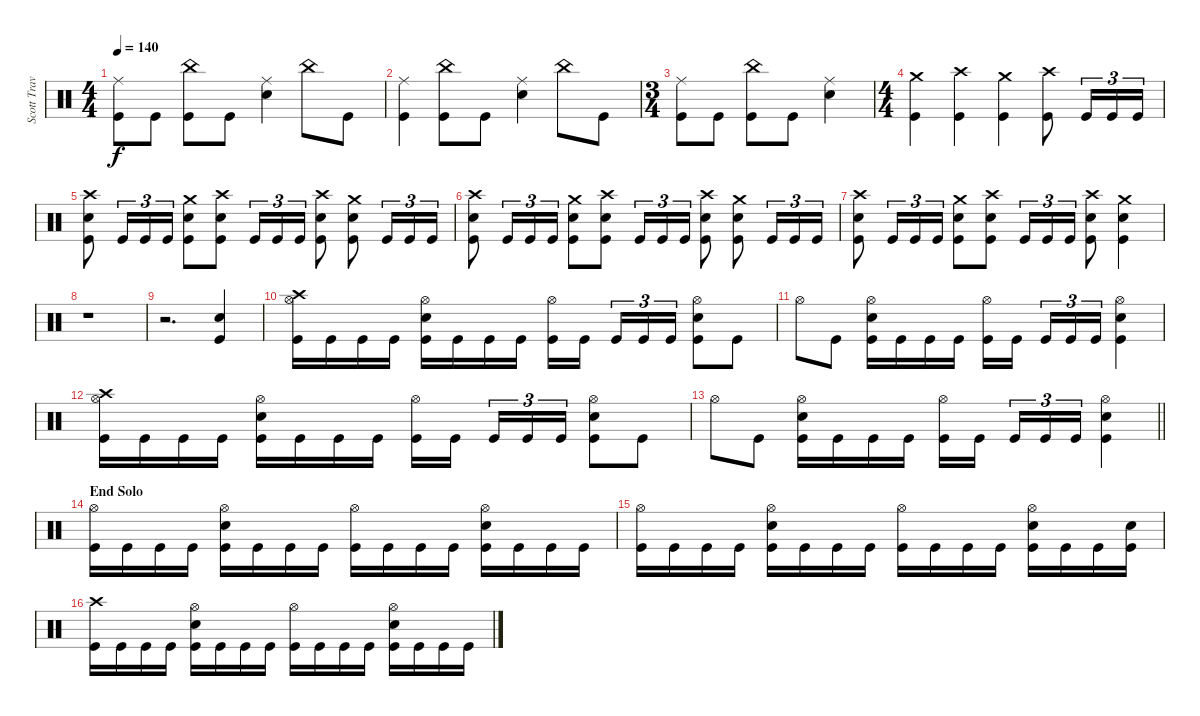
\track ("Scott Travis" "Scott Trav") {instrument percussion}
\staff {score}
\articulation defaults
\ts (4 4)
\tempo 140
\clef neutral
\ks c
("Ride (middle)" "Kick (hit)").8{dy f} "Kick (hit)".8 ("China (hit)" "Kick (hit)").8 "Kick (hit)".8 ("Ride (middle)" "Snare (hit) 2").4 "China (hit)".8 "Kick (hit)".8 |
("Ride (middle)" "Kick (hit)").4 ("China (hit)" "Kick (hit)").8 "Kick (hit)".8 ("Ride (middle)" "Snare (hit) 2").4 "China (hit)".8 "Kick (hit)".8 |
\ts (3 4)
("Ride (middle)" "Kick (hit)").8 "Kick (hit)".8 ("China (hit)" "Kick (hit)").8 "Kick (hit)".8 ("Ride (middle)" "Snare (hit) 2").4 |
\ts (4 4)
("Crash medium (hit)" "Kick (hit)").4 ("Crash high (hit)" "Kick (hit)").4 ("Crash medium (hit)" "Kick (hit)").4 ("Crash high (hit)" "Kick (hit)").8 "Kick (hit)".16{tu (3 2)} "Kick (hit)".16{tu (3 2)} "Kick (hit)".16{tu (3 2)} |
("Crash high (hit)" "Snare (hit) 2" "Kick (hit)").8 "Kick (hit)".16{tu (3 2)} "Kick (hit)".16{tu (3 2)} "Kick (hit)".16{tu (3 2)} ("Crash medium (hit)" "Snare (hit) 2" "Kick (hit)").8 ("Crash high (hit)" "Snare (hit) 2" "Kick (hit)").8 "Kick (hit)".16{tu (3 2)} "Kick (hit)".16{tu (3 2)} "Kick (hit)".16{tu (3 2)} ("Crash high (hit)" "Snare (hit) 2" "Kick (hit)").8 ("Crash medium (hit)" "Snare (hit) 2" "Kick (hit)").8 "Kick (hit)".16{tu (3 2)} "Kick (hit)".16{tu (3 2)} "Kick (hit)".16{tu (3 2)} |
("Crash high (hit)" "Snare (hit) 2" "Kick (hit)").8 "Kick (hit)".16{tu (3 2)} "Kick (hit)".16{tu (3 2)} "Kick (hit)".16{tu (3 2)} ("Crash medium (hit)" "Snare (hit) 2" "Kick (hit)").8 ("Crash high (hit)" "Snare (hit) 2" "Kick (hit)").8 "Kick (hit)".16{tu (3 2)} "Kick (hit)".16{tu (3 2)} "Kick (hit)".16{tu (3 2)} ("Crash high (hit)" "Snare (hit) 2" "Kick (hit)").8 ("Crash medium (hit)" "Snare (hit) 2" "Kick (hit)").8 "Kick (hit)".16{tu (3 2)} "Kick (hit)".16{tu (3 2)} "Kick (hit)".16{tu (3 2)} |
("Crash high (hit)" "Snare (hit) 2" "Kick (hit)").8 "Kick (hit)".16{tu (3 2)} "Kick (hit)".16{tu (3 2)} "Kick (hit)".16{tu (3 2)} ("Crash medium (hit)" "Snare (hit) 2" "Kick (hit)").8 ("Crash high (hit)" "Snare (hit) 2" "Kick (hit)").8 "Kick (hit)".16{tu (3 2)} "Kick (hit)".16{tu (3 2)} "Kick (hit)".16{tu (3 2)} ("Crash high (hit)" "Snare (hit) 2" "Kick (hit)").8 ("Crash medium (hit)" "Snare (hit) 2" "Kick (hit)").4 |
r.1 |
r.2{d} ("Snare (hit) 2" "Kick (hit)").4 |
("Hi-Hat (open)" "Crash high (hit)" "Kick (hit)").16 "Kick (hit)".16 "Kick (hit)".16 "Kick (hit)".16 ("Hi-Hat (open)" "Snare (hit) 2" "Kick (hit)").16 "Kick (hit)".16 "Kick (hit)".16 "Kick (hit)".16 ("Hi-Hat (open)" "Kick (hit)").16 "Kick (hit)".16{beam splitsecondary} "Kick (hit)".16{tu (3 2)} "Kick (hit)".16{tu (3 2)} "Kick (hit)".16{tu (3 2)} ("Hi-Hat (open)" "Snare (hit) 2" "Kick (hit)").8 "Kick (hit)".8 |
"Hi-Hat (open)".8 "Kick (hit)".8 ("Hi-Hat (open)" "Snare (hit) 2" "Kick (hit)").16 "Kick (hit)".16 "Kick (hit)".16 "Kick (hit)".16 ("Hi-Hat (open)" "Kick (hit)").16 "Kick (hit)".16{beam splitsecondary} "Kick (hit)".16{tu (3 2)} "Kick (hit)".16{tu (3 2)} "Kick (hit)".16{tu (3 2)} ("Hi-Hat (open)" "Snare (hit) 2" "Kick (hit)").4 |
("Hi-Hat (open)" "Crash high (hit)" "Kick (hit)").16 "Kick (hit)".16 "Kick (hit)".16 "Kick (hit)".16 ("Hi-Hat (open)" "Snare (hit) 2" "Kick (hit)").16 "Kick (hit)".16 "Kick (hit)".16 "Kick (hit)".16 ("Hi-Hat (open)" "Kick (hit)").16 "Kick (hit)".16{beam splitsecondary} "Kick (hit)".16{tu (3 2)} "Kick (hit)".16{tu (3 2)} "Kick (hit)".16{tu (3 2)} ("Hi-Hat (open)" "Snare (hit) 2" "Kick (hit)").8 "Kick (hit)".8 |
\barLineRight lightlight "Hi-Hat (open)".8 "Kick (hit)".8
("Hi-Hat (open)" "Snare (hit) 2" "Kick (hit)").16 "Kick (hit)".16 "Kick (hit)".16 "Kick (hit)".16 ("Hi-Hat (open)" "Kick (hit)").16 "Kick (hit)".16{beam splitsecondary} "Kick (hit)".16{tu (3 2)} "Kick (hit)".16{tu (3 2)} "Kick (hit)".16{tu (3 2)} ("Hi-Hat (open)" "Snare (hit) 2" "Kick (hit)").4 |
\section ("" "End Solo")
("Hi-Hat (open)" "Kick (hit)").16 "Kick (hit)".16 "Kick (hit)".16 "Kick (hit)".16 ("Hi-Hat (open)" "Snare (hit) 2" "Kick (hit)").16 "Kick (hit)".16 "Kick (hit)".16 "Kick (hit)".16 ("Hi-Hat (open)" "Kick (hit)").16 "Kick (hit)".16 "Kick (hit)".16 "Kick (hit)".16 ("Hi-Hat (open)" "Snare (hit) 2" "Kick (hit)").16 "Kick (hit)".16 "Kick (hit)".16 "Kick (hit)".16 |
("Hi-Hat (open)" "Kick (hit)").16 "Kick (hit)".16 "Kick (hit)".16 "Kick (hit)".16 ("Hi-Hat (open)" "Snare (hit) 2" "Kick (hit)").16 "Kick (hit)".16 "Kick (hit)".16 "Kick (hit)".16 ("Hi-Hat (open)" "Kick (hit)").16 "Kick (hit)".16 "Kick (hit)".16 "Kick (hit)".16 ("Hi-Hat (open)" "Snare (hit) 2" "Kick (hit)").16 "Kick (hit)".16 "Kick (hit)".16 ("Snare (hit) 2" "Kick (hit)").16 |
("Crash high (hit)" "Kick (hit)").16 "Kick (hit)".16 "Kick (hit)".16 "Kick (hit)".16 ("Hi-Hat (open)" "Snare (hit) 2" "Kick (hit)").16 "Kick (hit)".16 "Kick (hit)".16 "Kick (hit)".16 ("Hi-Hat (open)" "Kick (hit)").16 "Kick (hit)".16 "Kick (hit)".16 "Kick (hit)".16 ("Hi-Hat (open)" "Snare (hit) 2" "Kick (hit)").16 "Kick (hit)".16 "Kick (hit)".16 "Kick (hit)".16
